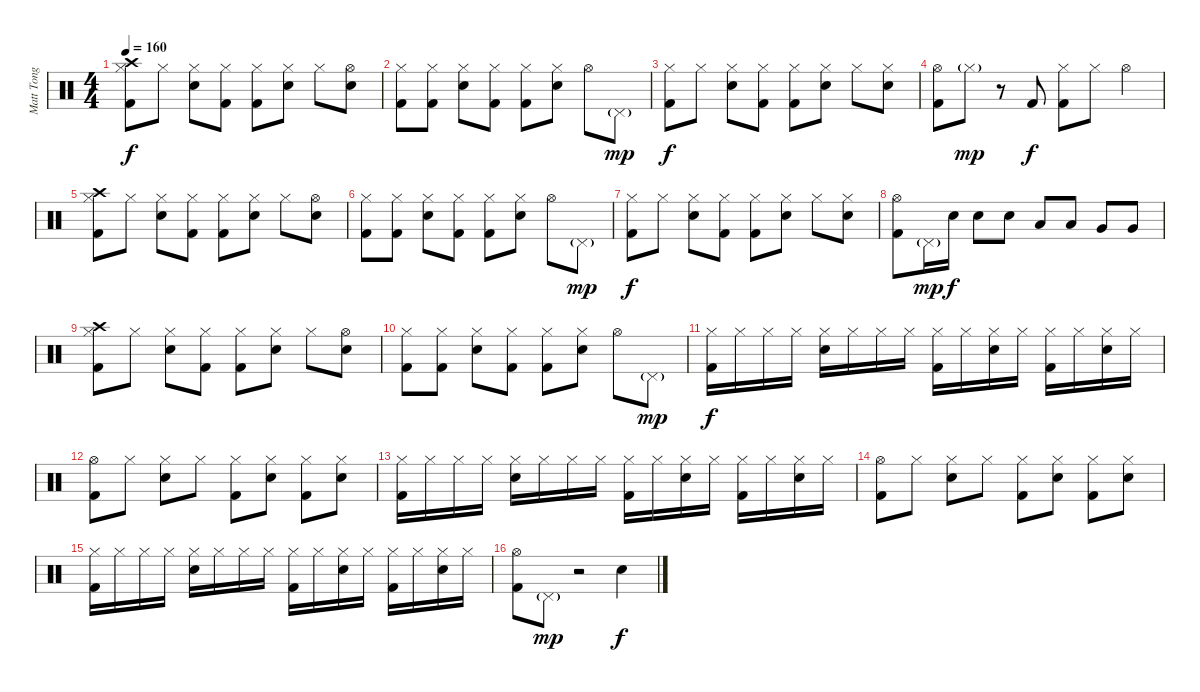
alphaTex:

\track ("Matt Tong" "Matt Tong") {instrument percussion}
\staff {score}
\articulation defaults
\ts (4 4)
\tempo 160
\clef neutral
\ks c
("Crash high (hit)" "Hi-Hat (closed)" "Kick (hit) 2").8{dy f} "Hi-Hat (closed)".8 ("Hi-Hat (closed)" "Electric Snare (hit)").8 ("Hi-Hat (closed)" "Kick (hit) 2").8 ("Hi-Hat (closed)" "Kick (hit) 2").8 ("Hi-Hat (closed)" "Electric Snare (hit)").8 "Hi-Hat (closed)".8 ("Hi-Hat (open)" "Electric Snare (hit)").8 |
("Hi-Hat (closed)" "Kick (hit) 2").8 ("Hi-Hat (closed)" "Kick (hit) 2").8 ("Hi-Hat (closed)" "Electric Snare (hit)").8 ("Hi-Hat (closed)" "Kick (hit) 2").8 ("Hi-Hat (closed)" "Kick (hit) 2").8 ("Hi-Hat (closed)" "Electric Snare (hit)").8 "Hi-Hat (open)".8 "Pedal Hi-Hat (hit)"{g}.8{dy mp} |
("Hi-Hat (closed)" "Kick (hit) 2").8{dy f} "Hi-Hat (closed)".8 ("Hi-Hat (closed)" "Electric Snare (hit)").8 ("Hi-Hat (closed)" "Kick (hit) 2").8 ("Hi-Hat (closed)" "Kick (hit) 2").8 ("Hi-Hat (closed)" "Electric Snare (hit)").8 "Hi-Hat (closed)".8 ("Hi-Hat (closed)" "Electric Snare (hit)").8 |
("Hi-Hat (open)" "Kick (hit) 2").8 "Hi-Hat (closed)"{g}.8{dy mp} r.8 "Kick (hit) 2".8{dy f} ("Hi-Hat (closed)" "Kick (hit) 2").8 "Hi-Hat (closed)".8 "Hi-Hat (open)".4 |
("Crash high (hit)" "Hi-Hat (closed)" "Kick (hit) 2").8 "Hi-Hat (closed)".8 ("Hi-Hat (closed)" "Electric Snare (hit)").8 ("Hi-Hat (closed)" "Kick (hit) 2").8 ("Hi-Hat (closed)" "Kick (hit) 2").8 ("Hi-Hat (closed)" "Electric Snare (hit)").8 "Hi-Hat (closed)".8 ("Hi-Hat (open)" "Electric Snare (hit)").8 |
("Hi-Hat (closed)" "Kick (hit) 2").8 ("Hi-Hat (closed)" "Kick (hit) 2").8 ("Hi-Hat (closed)" "Electric Snare (hit)").8 ("Hi-Hat (closed)" "Kick (hit) 2").8 ("Hi-Hat (closed)" "Kick (hit) 2").8 ("Hi-Hat (closed)" "Electric Snare (hit)").8 "Hi-Hat (open)".8 "Pedal Hi-Hat (hit)"{g}.8{dy mp} |
("Hi-Hat (closed)" "Kick (hit) 2").8{dy f} "Hi-Hat (closed)".8 ("Hi-Hat (closed)" "Electric Snare (hit)").8 ("Hi-Hat (closed)" "Kick (hit) 2").8 ("Hi-Hat (closed)" "Kick (hit) 2").8 ("Hi-Hat (closed)" "Electric Snare (hit)").8 "Hi-Hat (closed)".8 ("Hi-Hat (closed)" "Electric Snare (hit)").8 |
("Hi-Hat (open)" "Kick (hit) 2").8 "Pedal Hi-Hat (hit)"{g}.16{dy mp} "Electric Snare (hit)".16{dy f} "Electric Snare (hit)".8 "Electric Snare (hit)".8 "Low Tom (hit)".8 "Low Tom (hit)".8 "Very Low Tom (hit)".8 "Very Low Tom (hit)".8 |
("Crash high (hit)" "Hi-Hat (closed)" "Kick (hit) 2").8 "Hi-Hat (closed)".8 ("Hi-Hat (closed)" "Electric Snare (hit)").8 ("Hi-Hat (closed)" "Kick (hit) 2").8 ("Hi-Hat (closed)" "Kick (hit) 2").8 ("Hi-Hat (closed)" "Electric Snare (hit)").8 "Hi-Hat (closed)".8 ("Hi-Hat (open)" "Electric Snare (hit)").8 |
("Hi-Hat (closed)" "Kick (hit) 2").8 ("Hi-Hat (closed)" "Kick (hit) 2").8 ("Hi-Hat (closed)" "Electric Snare (hit)").8 ("Hi-Hat (closed)" "Kick (hit) 2").8 ("Hi-Hat (closed)" "Kick (hit) 2").8 ("Hi-Hat (closed)" "Electric Snare (hit)").8 "Hi-Hat (open)".8 "Pedal Hi-Hat (hit)"{g}.8{dy mp} |
("Hi-Hat (closed)" "Kick (hit) 2").16{dy f} "Hi-Hat (closed)".16 "Hi-Hat (closed)".16 "Hi-Hat (closed)".16 ("Hi-Hat (closed)" "Electric Snare (hit)").16 "Hi-Hat (closed)".16 "Hi-Hat (closed)".16 "Hi-Hat (closed)".16 ("Hi-Hat (closed)" "Kick (hit) 2").16 "Hi-Hat (closed)".16 ("Hi-Hat (closed)" "Electric Snare (hit)").16 "Hi-Hat (closed)".16 ("Hi-Hat (closed)" "Kick (hit) 2").16 "Hi-Hat (closed)".16 ("Hi-Hat (closed)" "Electric Snare (hit)").16 "Hi-Hat (closed)".16 |
("Hi-Hat (open)" "Kick (hit) 2").8 "Hi-Hat (closed)".8 ("Hi-Hat (closed)" "Electric Snare (hit)").8 "Hi-Hat (closed)".8 ("Hi-Hat (closed)" "Kick (hit) 2").8 ("Hi-Hat (closed)" "Electric Snare (hit)").8 ("Hi-Hat (closed)" "Kick (hit) 2").8 ("Hi-Hat (closed)" "Electric Snare (hit)").8 |
("Hi-Hat (closed)" "Kick (hit) 2").16 "Hi-Hat (closed)".16 "Hi-Hat (closed)".16 "Hi-Hat (closed)".16 ("Hi-Hat (closed)" "Electric Snare (hit)").16 "Hi-Hat (closed)".16 "Hi-Hat (closed)".16 "Hi-Hat (closed)".16 ("Hi-Hat (closed)" "Kick (hit) 2").16 "Hi-Hat (closed)".16 ("Hi-Hat (closed)" "Electric Snare (hit)").16 "Hi-Hat (closed)".16 ("Hi-Hat (closed)" "Kick (hit) 2").16 "Hi-Hat (closed)".16 ("Hi-Hat (closed)" "Electric Snare (hit)").16 "Hi-Hat (closed)".16 |
("Hi-Hat (open)" "Kick (hit) 2").8 "Hi-Hat (closed)".8 ("Hi-Hat (closed)" "Electric Snare (hit)").8 "Hi-Hat (closed)".8 ("Hi-Hat (closed)" "Kick (hit) 2").8 ("Hi-Hat (closed)" "Electric Snare (hit)").8 ("Hi-Hat (closed)" "Kick (hit) 2").8 ("Hi-Hat (closed)" "Electric Snare (hit)").8 |
("Hi-Hat (closed)" "Kick (hit) 2").16 "Hi-Hat (closed)".16 "Hi-Hat (closed)".16 "Hi-Hat (closed)".16 ("Hi-Hat (closed)" "Electric Snare (hit)").16 "Hi-Hat (closed)".16 "Hi-Hat (closed)".16 "Hi-Hat (closed)".16 ("Hi-Hat (closed)" "Kick (hit) 2").16 "Hi-Hat (closed)".16 ("Hi-Hat (closed)" "Electric Snare (hit)").16 "Hi-Hat (closed)".16 ("Hi-Hat (closed)" "Kick (hit) 2").16 "Hi-Hat (closed)".16 ("Hi-Hat (closed)" "Electric Snare (hit)").16 "Hi-Hat (closed)".16 |
("Hi-Hat (open)" "Kick (hit) 2").8 "Pedal Hi-Hat (hit)"{g}.8{dy mp} r.2 "Electric Snare (hit)".4{dy f}
